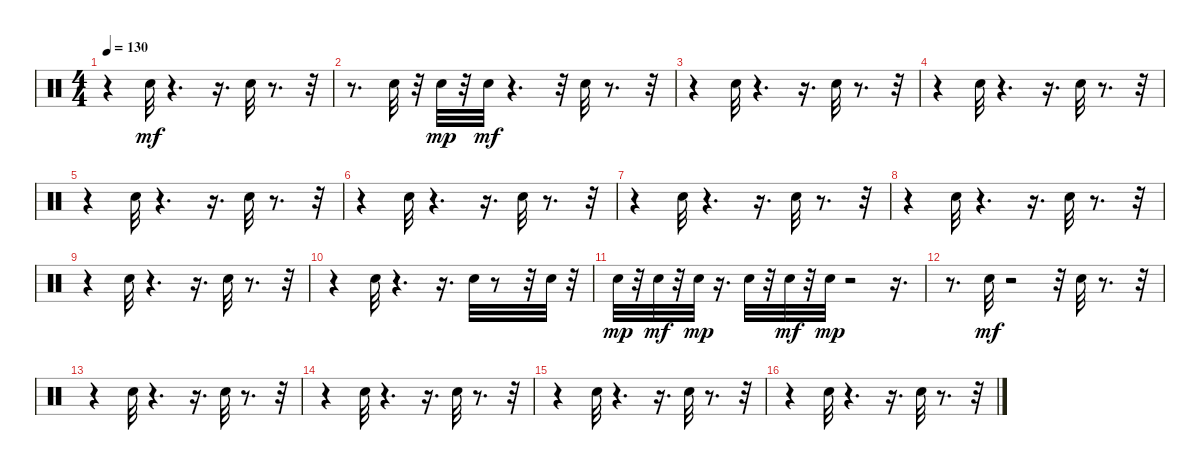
\track "" {instrument percussion}
\staff {score}
\articulation defaults
\ts (4 4)
\tempo 130
\clef neutral
\ks c
r.4{dy mf} "Electric Snare (hit)".32 r.4{d} r.16{d} "Electric Snare (hit)".32 r.8{d} r.32 |
r.8{d} "Electric Snare (hit)".32 r.32 "Electric Snare (hit)".32{dy mp} r.32 "Electric Snare (hit)".32{dy mf} r.4{d} r.32 "Electric Snare (hit)".32 r.8{d} r.32 |
r.4 "Electric Snare (hit)".32 r.4{d} r.16{d} "Electric Snare (hit)".32 r.8{d} r.32 |
r.4 "Electric Snare (hit)".32 r.4{d} r.16{d} "Electric Snare (hit)".32 r.8{d} r.32 |
r.4 "Electric Snare (hit)".32 r.4{d} r.16{d} "Electric Snare (hit)".32 r.8{d} r.32 |
r.4 "Electric Snare (hit)".32 r.4{d} r.16{d} "Electric Snare (hit)".32 r.8{d} r.32 |
r.4 "Electric Snare (hit)".32 r.4{d} r.16{d} "Electric Snare (hit)".32 r.8{d} r.32 |
r.4 "Electric Snare (hit)".32 r.4{d} r.16{d} "Electric Snare (hit)".32 r.8{d} r.32 |
r.4 "Electric Snare (hit)".32 r.4{d} r.16{d} "Electric Snare (hit)".32 r.8{d} r.32 |
r.4 "Electric Snare (hit)".32 r.4{d} r.16{d} "Electric Snare (hit)".32 r.8 r.32 "Electric Snare (hit)".32 r.32 |
"Electric Snare (hit)".32{dy mp} r.32 "Electric Snare (hit)".32{dy mf} r.32 "Electric Snare (hit)".32{dy mp} r.16{d} "Electric Snare (hit)".32 r.32 "Electric Snare (hit)".32{dy mf} r.32 "Electric Snare (hit)".32{dy mp} r.2 r.16{d} |
r.8{d} "Electric Snare (hit)".32{dy mf} r.2 r.32 "Electric Snare (hit)".32 r.8{d} r.32 |
r.4 "Electric Snare (hit)".32 r.4{d} r.16{d} "Electric Snare (hit)".32 r.8{d} r.32 |
r.4 "Electric Snare (hit)".32 r.4{d} r.16{d} "Electric Snare (hit)".32 r.8{d} r.32 |
r.4 "Electric Snare (hit)".32 r.4{d} r.16{d} "Electric Snare (hit)".32 r.8{d} r.32 |
r.4 "Electric Snare (hit)".32 r.4{d} r.16{d} "Electric Snare (hit)".32 r.8{d} r.32
